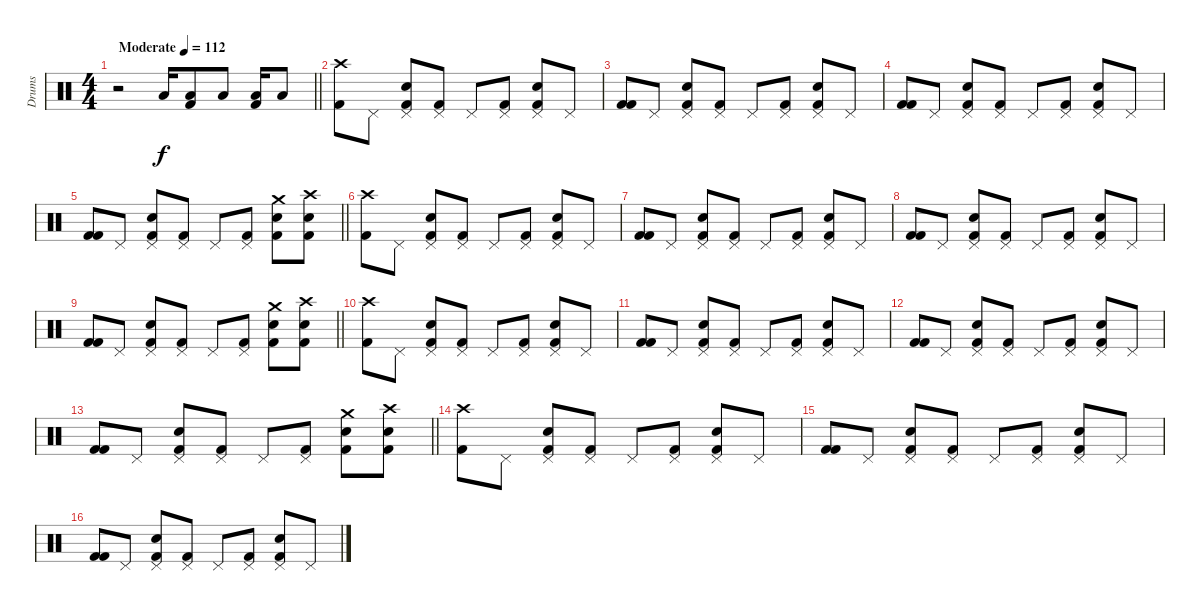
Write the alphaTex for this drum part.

\track ("Drums" "Drums") {instrument percussion}
\staff {score}
\articulation defaults
\ts (4 4)
\tempo (112 "Moderate")
\clef neutral
\barLineRight lightlight
\ks c
r.2{dy f} "Low Floor Tom (hit)".16 ("Kick (hit) 2" "Low Tom (hit)").8 "Low Floor Tom (hit)".8 ("Kick (hit) 2" "Low Tom (hit)").16 "Low Floor Tom (hit)".8 |
("Kick (hit) 2" "Crash high (hit)").8 "Pedal Hi-Hat (hit)".8 ("Pedal Hi-Hat (hit)" "Snare (hit) 2" "Kick (hit) 2").8 ("Pedal Hi-Hat (hit)" "Kick (hit) 2").8 "Pedal Hi-Hat (hit)".8 ("Pedal Hi-Hat (hit)" "Kick (hit) 2").8 ("Pedal Hi-Hat (hit)" "Snare (hit) 2" "Kick (hit) 2").8 "Pedal Hi-Hat (hit)".8 |
("Kick (hit) 2" "Kick (hit) 2").8 "Pedal Hi-Hat (hit)".8 ("Pedal Hi-Hat (hit)" "Snare (hit) 2" "Kick (hit) 2").8 ("Pedal Hi-Hat (hit)" "Kick (hit) 2").8 "Pedal Hi-Hat (hit)".8 ("Pedal Hi-Hat (hit)" "Kick (hit) 2").8 ("Pedal Hi-Hat (hit)" "Snare (hit) 2" "Kick (hit) 2").8 "Pedal Hi-Hat (hit)".8 |
("Kick (hit) 2" "Kick (hit) 2").8 "Pedal Hi-Hat (hit)".8 ("Pedal Hi-Hat (hit)" "Snare (hit) 2" "Kick (hit) 2").8 ("Pedal Hi-Hat (hit)" "Kick (hit) 2").8 "Pedal Hi-Hat (hit)".8 ("Pedal Hi-Hat (hit)" "Kick (hit) 2").8 ("Pedal Hi-Hat (hit)" "Snare (hit) 2" "Kick (hit) 2").8 "Pedal Hi-Hat (hit)".8 |
\barLineRight lightlight
("Kick (hit) 2" "Kick (hit) 2").8 "Pedal Hi-Hat (hit)".8 ("Pedal Hi-Hat (hit)" "Snare (hit) 2" "Kick (hit) 2").8 ("Pedal Hi-Hat (hit)" "Kick (hit) 2").8 "Pedal Hi-Hat (hit)".8 ("Pedal Hi-Hat (hit)" "Kick (hit) 2").8 ("Kick (hit) 2" "Snare (hit) 2" "Crash medium (hit)").8 ("Kick (hit) 2" "Snare (hit) 2" "Crash high (hit)").8 |
("Kick (hit) 2" "Crash high (hit)").8 "Pedal Hi-Hat (hit)".8 ("Pedal Hi-Hat (hit)" "Snare (hit) 2" "Kick (hit) 2").8 ("Pedal Hi-Hat (hit)" "Kick (hit) 2").8 "Pedal Hi-Hat (hit)".8 ("Pedal Hi-Hat (hit)" "Kick (hit) 2").8 ("Pedal Hi-Hat (hit)" "Snare (hit) 2" "Kick (hit) 2").8 "Pedal Hi-Hat (hit)".8 |
("Kick (hit) 2" "Kick (hit) 2").8 "Pedal Hi-Hat (hit)".8 ("Pedal Hi-Hat (hit)" "Snare (hit) 2" "Kick (hit) 2").8 ("Pedal Hi-Hat (hit)" "Kick (hit) 2").8 "Pedal Hi-Hat (hit)".8 ("Pedal Hi-Hat (hit)" "Kick (hit) 2").8 ("Pedal Hi-Hat (hit)" "Snare (hit) 2" "Kick (hit) 2").8 "Pedal Hi-Hat (hit)".8 |
("Kick (hit) 2" "Kick (hit) 2").8 "Pedal Hi-Hat (hit)".8 ("Pedal Hi-Hat (hit)" "Snare (hit) 2" "Kick (hit) 2").8 ("Pedal Hi-Hat (hit)" "Kick (hit) 2").8 "Pedal Hi-Hat (hit)".8 ("Pedal Hi-Hat (hit)" "Kick (hit) 2").8 ("Pedal Hi-Hat (hit)" "Snare (hit) 2" "Kick (hit) 2").8 "Pedal Hi-Hat (hit)".8 |
\barLineRight lightlight
("Kick (hit) 2" "Kick (hit) 2").8 "Pedal Hi-Hat (hit)".8 ("Pedal Hi-Hat (hit)" "Snare (hit) 2" "Kick (hit) 2").8 ("Pedal Hi-Hat (hit)" "Kick (hit) 2").8 "Pedal Hi-Hat (hit)".8 ("Pedal Hi-Hat (hit)" "Kick (hit) 2").8 ("Kick (hit) 2" "Snare (hit) 2" "Crash medium (hit)").8 ("Kick (hit) 2" "Snare (hit) 2" "Crash high (hit)").8 |
("Kick (hit) 2" "Crash high (hit)").8 "Pedal Hi-Hat (hit)".8 ("Pedal Hi-Hat (hit)" "Snare (hit) 2" "Kick (hit) 2").8 ("Pedal Hi-Hat (hit)" "Kick (hit) 2").8 "Pedal Hi-Hat (hit)".8 ("Pedal Hi-Hat (hit)" "Kick (hit) 2").8 ("Pedal Hi-Hat (hit)" "Snare (hit) 2" "Kick (hit) 2").8 "Pedal Hi-Hat (hit)".8 |
("Kick (hit) 2" "Kick (hit) 2").8 "Pedal Hi-Hat (hit)".8 ("Pedal Hi-Hat (hit)" "Snare (hit) 2" "Kick (hit) 2").8 ("Pedal Hi-Hat (hit)" "Kick (hit) 2").8 "Pedal Hi-Hat (hit)".8 ("Pedal Hi-Hat (hit)" "Kick (hit) 2").8 ("Pedal Hi-Hat (hit)" "Snare (hit) 2" "Kick (hit) 2").8 "Pedal Hi-Hat (hit)".8 |
("Kick (hit) 2" "Kick (hit) 2").8 "Pedal Hi-Hat (hit)".8 ("Pedal Hi-Hat (hit)" "Snare (hit) 2" "Kick (hit) 2").8 ("Pedal Hi-Hat (hit)" "Kick (hit) 2").8 "Pedal Hi-Hat (hit)".8 ("Pedal Hi-Hat (hit)" "Kick (hit) 2").8 ("Pedal Hi-Hat (hit)" "Snare (hit) 2" "Kick (hit) 2").8 "Pedal Hi-Hat (hit)".8 |
\barLineRight lightlight
("Kick (hit) 2" "Kick (hit) 2").8 "Pedal Hi-Hat (hit)".8 ("Pedal Hi-Hat (hit)" "Snare (hit) 2" "Kick (hit) 2").8 ("Pedal Hi-Hat (hit)" "Kick (hit) 2").8 "Pedal Hi-Hat (hit)".8 ("Pedal Hi-Hat (hit)" "Kick (hit) 2").8 ("Kick (hit) 2" "Snare (hit) 2" "Crash medium (hit)").8 ("Kick (hit) 2" "Snare (hit) 2" "Crash high (hit)").8 |
("Kick (hit) 2" "Crash high (hit)").8 "Pedal Hi-Hat (hit)".8 ("Pedal Hi-Hat (hit)" "Snare (hit) 2" "Kick (hit) 2").8 ("Pedal Hi-Hat (hit)" "Kick (hit) 2").8 "Pedal Hi-Hat (hit)".8 ("Pedal Hi-Hat (hit)" "Kick (hit) 2").8 ("Pedal Hi-Hat (hit)" "Snare (hit) 2" "Kick (hit) 2").8 "Pedal Hi-Hat (hit)".8 |
("Kick (hit) 2" "Kick (hit) 2").8 "Pedal Hi-Hat (hit)".8 ("Pedal Hi-Hat (hit)" "Snare (hit) 2" "Kick (hit) 2").8 ("Pedal Hi-Hat (hit)" "Kick (hit) 2").8 "Pedal Hi-Hat (hit)".8 ("Pedal Hi-Hat (hit)" "Kick (hit) 2").8 ("Pedal Hi-Hat (hit)" "Snare (hit) 2" "Kick (hit) 2").8 "Pedal Hi-Hat (hit)".8 |
("Kick (hit) 2" "Kick (hit) 2").8 "Pedal Hi-Hat (hit)".8 ("Pedal Hi-Hat (hit)" "Snare (hit) 2" "Kick (hit) 2").8 ("Pedal Hi-Hat (hit)" "Kick (hit) 2").8 "Pedal Hi-Hat (hit)".8 ("Pedal Hi-Hat (hit)" "Kick (hit) 2").8 ("Pedal Hi-Hat (hit)" "Snare (hit) 2" "Kick (hit) 2").8 "Pedal Hi-Hat (hit)".8
